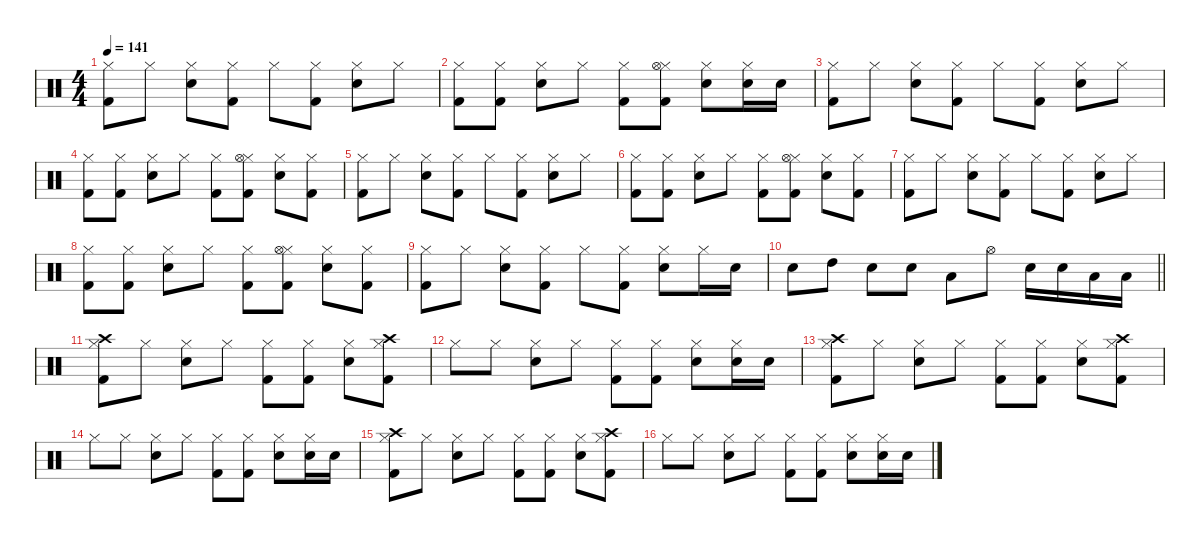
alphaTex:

\defaultSystemsLayout 4
\hideDynamics
\bracketExtendMode nobrackets
\singleTrackTrackNamePolicy hidden
\multiTrackTrackNamePolicy hidden
\otherSystemsTrackNameOrientation horizontal
\track ("Drum" "drm.") {instrument percussion}
\staff {score}
\articulation defaults
\ts (4 4)
\tempo 141
\clef neutral
\ks c
("Hi-Hat (closed)" "Kick (hit) 2").8{dy fff beam Down} "Hi-Hat (closed)".8{dy f beam Down} ("Hi-Hat (closed)" "Snare (hit) 2").8{dy fff beam Down} ("Hi-Hat (closed)" "Kick (hit) 2").8{beam Down} "Hi-Hat (closed)".8{beam Down} ("Hi-Hat (closed)" "Kick (hit) 2").8{dy f beam Down} ("Hi-Hat (closed)" "Snare (hit) 2").8{dy fff beam Down} "Hi-Hat (closed)".8{dy f beam Down} |
("Hi-Hat (closed)" "Kick (hit) 2").8{dy fff beam Down} ("Hi-Hat (closed)" "Kick (hit) 2").8{beam Down} ("Hi-Hat (closed)" "Snare (hit) 2").8{beam Down} "Hi-Hat (closed)".8{dy f beam Down} ("Hi-Hat (closed)" "Kick (hit) 2").8{dy fff beam Down} ("Hi-Hat (closed)" "Kick (hit) 2" "Hi-Hat (open)").8{beam Down} ("Hi-Hat (closed)" "Snare (hit) 2").8{beam Down} ("Hi-Hat (closed)" "Snare (hit) 2").16{beam Down} "Snare (hit) 2".16{dy f beam Down} |
("Hi-Hat (closed)" "Kick (hit) 2").8{dy fff beam Down} "Hi-Hat (closed)".8{dy f beam Down} ("Hi-Hat (closed)" "Snare (hit) 2").8{dy fff beam Down} ("Hi-Hat (closed)" "Kick (hit) 2").8{beam Down} "Hi-Hat (closed)".8{beam Down} ("Hi-Hat (closed)" "Kick (hit) 2").8{dy f beam Down} ("Hi-Hat (closed)" "Snare (hit) 2").8{dy fff beam Down} "Hi-Hat (closed)".8{dy f beam Down} |
("Hi-Hat (closed)" "Kick (hit) 2").8{dy fff beam Down} ("Hi-Hat (closed)" "Kick (hit) 2").8{beam Down} ("Hi-Hat (closed)" "Snare (hit) 2").8{beam Down} "Hi-Hat (closed)".8{dy f beam Down} ("Hi-Hat (closed)" "Kick (hit) 2").8{dy fff beam Down} ("Hi-Hat (closed)" "Kick (hit) 2" "Hi-Hat (open)").8{beam Down} ("Hi-Hat (closed)" "Snare (hit) 2").8{beam Down} ("Hi-Hat (closed)" "Kick (hit) 2").8{beam Down} |
("Hi-Hat (closed)" "Kick (hit) 2").8{beam Down} "Hi-Hat (closed)".8{dy f beam Down} ("Hi-Hat (closed)" "Snare (hit) 2").8{dy fff beam Down} ("Hi-Hat (closed)" "Kick (hit) 2").8{beam Down} "Hi-Hat (closed)".8{beam Down} ("Hi-Hat (closed)" "Kick (hit) 2").8{dy f beam Down} ("Hi-Hat (closed)" "Snare (hit) 2").8{dy fff beam Down} "Hi-Hat (closed)".8{dy f beam Down} |
("Hi-Hat (closed)" "Kick (hit) 2").8{dy fff beam Down} ("Hi-Hat (closed)" "Kick (hit) 2").8{beam Down} ("Hi-Hat (closed)" "Snare (hit) 2").8{beam Down} "Hi-Hat (closed)".8{dy f beam Down} ("Hi-Hat (closed)" "Kick (hit) 2").8{dy fff beam Down} ("Hi-Hat (closed)" "Kick (hit) 2" "Hi-Hat (open)").8{beam Down} ("Hi-Hat (closed)" "Snare (hit) 2").8{beam Down} ("Hi-Hat (closed)" "Kick (hit) 2").8{beam Down} |
("Hi-Hat (closed)" "Kick (hit) 2").8{beam Down} "Hi-Hat (closed)".8{dy f beam Down} ("Hi-Hat (closed)" "Snare (hit) 2").8{dy fff beam Down} ("Hi-Hat (closed)" "Kick (hit) 2").8{beam Down} "Hi-Hat (closed)".8{beam Down} ("Hi-Hat (closed)" "Kick (hit) 2").8{dy f beam Down} ("Hi-Hat (closed)" "Snare (hit) 2").8{dy fff beam Down} "Hi-Hat (closed)".8{dy f beam Down} |
("Hi-Hat (closed)" "Kick (hit) 2").8{dy fff beam Down} ("Hi-Hat (closed)" "Kick (hit) 2").8{beam Down} ("Hi-Hat (closed)" "Snare (hit) 2").8{beam Down} "Hi-Hat (closed)".8{dy f beam Down} ("Hi-Hat (closed)" "Kick (hit) 2").8{dy fff beam Down} ("Hi-Hat (closed)" "Kick (hit) 2" "Hi-Hat (open)").8{beam Down} ("Hi-Hat (closed)" "Snare (hit) 2").8{beam Down} ("Hi-Hat (closed)" "Kick (hit) 2").8{beam Down} |
("Hi-Hat (closed)" "Kick (hit) 2").8{beam Down} "Hi-Hat (closed)".8{dy f beam Down} ("Hi-Hat (closed)" "Snare (hit) 2").8{dy fff beam Down} ("Hi-Hat (closed)" "Kick (hit) 2").8{beam Down} "Hi-Hat (closed)".8{beam Down} ("Hi-Hat (closed)" "Kick (hit) 2").8{beam Down} ("Hi-Hat (closed)" "Snare (hit) 2").8{beam Down} "Hi-Hat (closed)".16{dy f beam Down} "Snare (hit) 2".16{dy mf beam Down} |
\barLineRight lightlight "Snare (hit) 2".8{dy fff beam Down} "High Tom (hit)".8{beam Down} "Snare (hit) 2".8{dy mf beam Down} "Snare (hit) 2".8{dy fff beam Down} "Low Tom (hit)".8{beam Down} "Hi-Hat (open)".8{beam Down} "Snare (hit) 2".16{beam Down} "Snare (hit) 2".16{beam Down} "Low Tom (hit)".16{beam Down} "Low Floor Tom (hit)".16{beam Down}
|
("Hi-Hat (closed)" "Kick (hit) 2" "Crash high (hit)").8{beam Down} "Hi-Hat (closed)".8{dy f beam Down} ("Hi-Hat (closed)" "Snare (hit) 2").8{dy fff beam Down} "Hi-Hat (closed)".8{dy f beam Down} ("Hi-Hat (closed)" "Kick (hit) 2").8{dy fff beam Down} ("Hi-Hat (closed)" "Kick (hit) 2").8{beam Down} ("Hi-Hat (closed)" "Snare (hit) 2").8{beam Down} ("Hi-Hat (closed)" "Kick (hit) 2" "Crash high (hit)").8{beam Down} |
"Hi-Hat (closed)".8{beam Down} "Hi-Hat (closed)".8{dy f beam Down} ("Hi-Hat (closed)" "Snare (hit) 2").8{dy fff beam Down} "Hi-Hat (closed)".8{dy f beam Down} ("Hi-Hat (closed)" "Kick (hit) 2").8{dy fff beam Down} ("Hi-Hat (closed)" "Kick (hit) 2").8{beam Down} ("Hi-Hat (closed)" "Snare (hit) 2").8{beam Down} ("Hi-Hat (closed)" "Snare (hit) 2").16{beam Down} "Snare (hit) 2".16{beam Down} |
("Kick (hit) 2" "Hi-Hat (closed)" "Crash high (hit)").8{beam Down} "Hi-Hat (closed)".8{dy f beam Down} ("Snare (hit) 2" "Hi-Hat (closed)").8{dy fff beam Down} "Hi-Hat (closed)".8{dy f beam Down} ("Kick (hit) 2" "Hi-Hat (closed)").8{dy fff beam Down} ("Kick (hit) 2" "Hi-Hat (closed)").8{beam Down} ("Snare (hit) 2" "Hi-Hat (closed)").8{beam Down} ("Kick (hit) 2" "Hi-Hat (closed)" "Crash high (hit)").8{beam Down} |
"Hi-Hat (closed)".8{beam Down} "Hi-Hat (closed)".8{dy f beam Down} ("Hi-Hat (closed)" "Snare (hit) 2").8{dy fff beam Down} "Hi-Hat (closed)".8{dy f beam Down} ("Hi-Hat (closed)" "Kick (hit) 2").8{dy fff beam Down} ("Hi-Hat (closed)" "Kick (hit) 2").8{beam Down} ("Hi-Hat (closed)" "Snare (hit) 2").8{beam Down} ("Hi-Hat (closed)" "Snare (hit) 2").16{beam Down} "Snare (hit) 2".16{beam Down} |
("Hi-Hat (closed)" "Kick (hit) 2" "Crash high (hit)").8{beam Down} "Hi-Hat (closed)".8{dy f beam Down} ("Hi-Hat (closed)" "Snare (hit) 2").8{dy fff beam Down} "Hi-Hat (closed)".8{dy f beam Down} ("Kick (hit) 2" "Hi-Hat (closed)").8{dy fff beam Down} ("Kick (hit) 2" "Hi-Hat (closed)").8{beam Down} ("Snare (hit) 2" "Hi-Hat (closed)").8{beam Down} ("Kick (hit) 2" "Hi-Hat (closed)" "Crash high (hit)").8{beam Down} |
"Hi-Hat (closed)".8{beam Down} "Hi-Hat (closed)".8{dy f beam Down} ("Hi-Hat (closed)" "Snare (hit) 2").8{dy fff beam Down} "Hi-Hat (closed)".8{dy f beam Down} ("Hi-Hat (closed)" "Kick (hit) 2").8{dy fff beam Down} ("Hi-Hat (closed)" "Kick (hit) 2").8{beam Down} ("Hi-Hat (closed)" "Snare (hit) 2").8{beam Down} ("Hi-Hat (closed)" "Snare (hit) 2").16{beam Down} "Snare (hit) 2".16{dy f beam Down}
